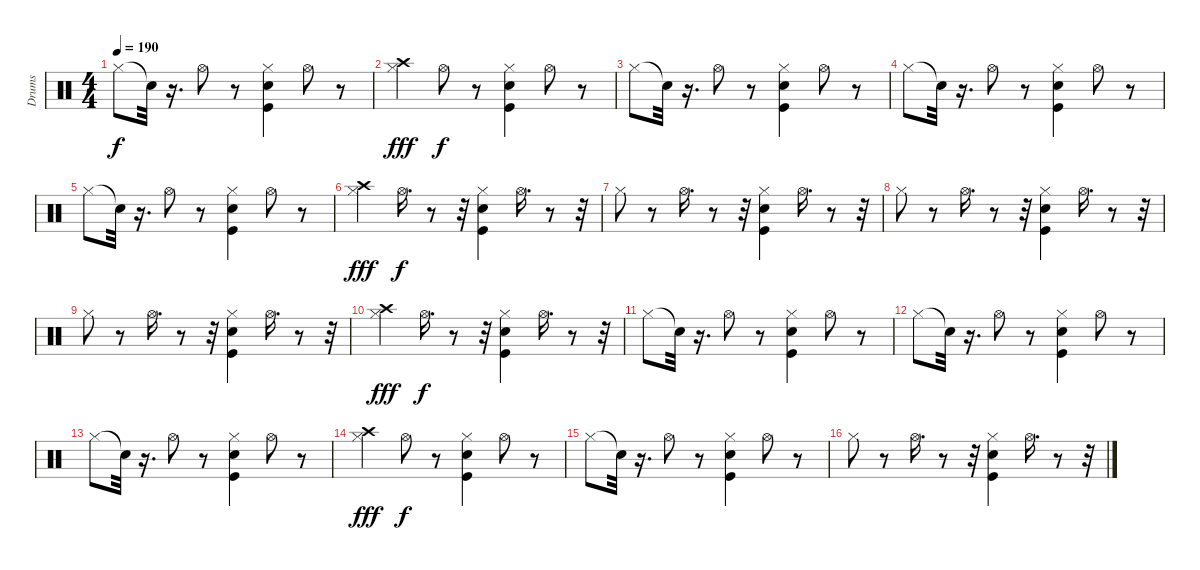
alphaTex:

\track ("Drums" "Drums") {instrument percussion}
\staff {score}
\articulation defaults
\ts (4 4)
\tempo 190
\clef neutral
\ks c "Hi-Hat (closed)".8{dy f} "Snare (hit)"{t}.32
r.16{d} "Hi-Hat (open)".8 r.8 ("Kick (hit)" "Snare (hit) 2" "Hi-Hat (closed)").4 "Hi-Hat (open)".8 r.8 |
("Crash high (hit)" "Hi-Hat (closed)").4{dy fff} "Hi-Hat (open)".8{dy f} r.8 ("Kick (hit)" "Snare (hit) 2" "Hi-Hat (closed)").4 "Hi-Hat (open)".8 r.8 |
"Hi-Hat (closed)".8 "Snare (hit)"{t}.32 r.16{d} "Hi-Hat (open)".8 r.8 ("Kick (hit)" "Snare (hit) 2" "Hi-Hat (closed)").4 "Hi-Hat (open)".8 r.8 |
"Hi-Hat (closed)".8 "Snare (hit)"{t}.32 r.16{d} "Hi-Hat (open)".8 r.8 ("Kick (hit)" "Snare (hit) 2" "Hi-Hat (closed)").4 "Hi-Hat (open)".8 r.8 |
"Hi-Hat (closed)".8 "Snare (hit)"{t}.32 r.16{d} "Hi-Hat (open)".8 r.8 ("Kick (hit)" "Snare (hit) 2" "Hi-Hat (closed)").4 "Hi-Hat (open)".8 r.8 |
("Crash high (hit)" "Hi-Hat (closed)").4{dy fff} "Hi-Hat (open)".16{d dy f} r.8 r.32 ("Kick (hit)" "Snare (hit) 2" "Hi-Hat (closed)").4 "Hi-Hat (open)".16{d} r.8 r.32 |
"Hi-Hat (closed)".8 r.8 "Hi-Hat (open)".16{d} r.8 r.32 ("Kick (hit)" "Snare (hit) 2" "Hi-Hat (closed)").4 "Hi-Hat (open)".16{d} r.8 r.32 |
"Hi-Hat (closed)".8 r.8 "Hi-Hat (open)".16{d} r.8 r.32 ("Kick (hit)" "Snare (hit) 2" "Hi-Hat (closed)").4 "Hi-Hat (open)".16{d} r.8 r.32 |
"Hi-Hat (closed)".8 r.8 "Hi-Hat (open)".16{d} r.8 r.32 ("Kick (hit)" "Snare (hit) 2" "Hi-Hat (closed)").4 "Hi-Hat (open)".16{d} r.8 r.32 |
("Crash high (hit)" "Hi-Hat (closed)").4{dy fff} "Hi-Hat (open)".16{d dy f} r.8 r.32 ("Kick (hit)" "Snare (hit) 2" "Hi-Hat (closed)").4 "Hi-Hat (open)".16{d} r.8 r.32 |
"Hi-Hat (closed)".8 "Snare (hit)"{t}.32 r.16{d} "Hi-Hat (open)".8 r.8 ("Kick (hit)" "Snare (hit) 2" "Hi-Hat (closed)").4 "Hi-Hat (open)".8 r.8 |
"Hi-Hat (closed)".8 "Snare (hit)"{t}.32 r.16{d} "Hi-Hat (open)".8 r.8 ("Kick (hit)" "Snare (hit) 2" "Hi-Hat (closed)").4 "Hi-Hat (open)".8 r.8 |
"Hi-Hat (closed)".8 "Snare (hit)"{t}.32 r.16{d} "Hi-Hat (open)".8 r.8 ("Kick (hit)" "Snare (hit) 2" "Hi-Hat (closed)").4 "Hi-Hat (open)".8 r.8 |
("Crash high (hit)" "Hi-Hat (closed)").4{dy fff} "Hi-Hat (open)".8{dy f} r.8 ("Kick (hit)" "Snare (hit) 2" "Hi-Hat (closed)").4 "Hi-Hat (open)".8 r.8 |
"Hi-Hat (closed)".8 "Snare (hit)"{t}.32 r.16{d} "Hi-Hat (open)".8 r.8 ("Kick (hit)" "Snare (hit) 2" "Hi-Hat (closed)").4 "Hi-Hat (open)".8 r.8 |
"Hi-Hat (closed)".8 r.8 "Hi-Hat (open)".16{d} r.8 r.32 ("Kick (hit)" "Snare (hit) 2" "Hi-Hat (closed)").4 "Hi-Hat (open)".16{d} r.8 r.32
